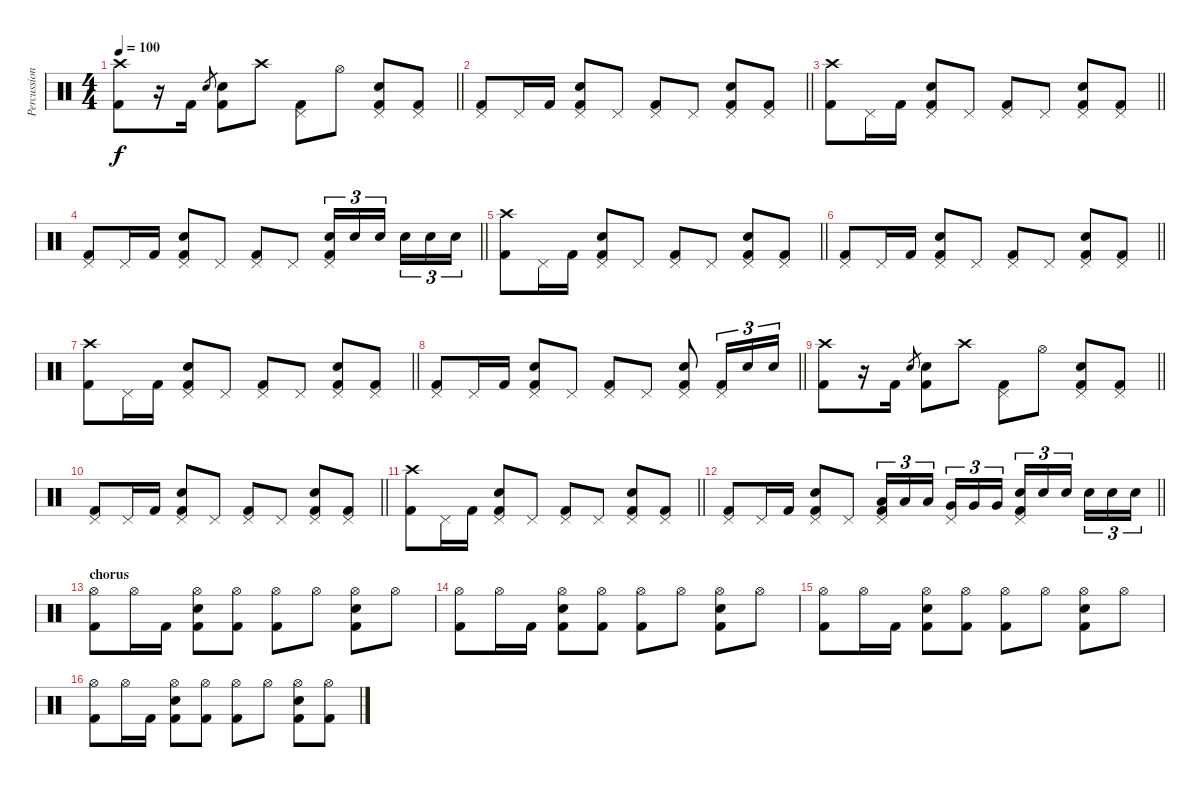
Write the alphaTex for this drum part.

\track ("Percussion" "Percussion") {instrument percussion}
\staff {score}
\articulation defaults
\ts (4 4)
\tempo 100
\clef neutral
\barLineRight lightlight
\ks c
("Crash high (hit)" "Kick (hit) 2").8{dy f} r.16 "Kick (hit) 2".16 "Electric Snare (hit)".8{gr} ("Electric Snare (hit)" "Kick (hit) 2").8 "Crash high (hit)".8 ("Pedal Hi-Hat (hit)" "Kick (hit) 2").8 "Hi-Hat (open)".8 ("Pedal Hi-Hat (hit)" "Electric Snare (hit)" "Kick (hit) 2").8 ("Pedal Hi-Hat (hit)" "Kick (hit) 2").8 |
\barLineRight lightlight
("Pedal Hi-Hat (hit)" "Kick (hit) 2").8 "Pedal Hi-Hat (hit)".16 "Kick (hit) 2".16 ("Pedal Hi-Hat (hit)" "Electric Snare (hit)" "Kick (hit) 2").8 "Pedal Hi-Hat (hit)".8 ("Pedal Hi-Hat (hit)" "Kick (hit) 2").8 "Pedal Hi-Hat (hit)".8 ("Pedal Hi-Hat (hit)" "Electric Snare (hit)" "Kick (hit) 2").8 ("Pedal Hi-Hat (hit)" "Kick (hit) 2").8 |
\barLineRight lightlight
("Crash high (hit)" "Kick (hit) 2").8 "Pedal Hi-Hat (hit)".16 "Kick (hit) 2".16 ("Pedal Hi-Hat (hit)" "Electric Snare (hit)" "Kick (hit) 2").8 "Pedal Hi-Hat (hit)".8 ("Pedal Hi-Hat (hit)" "Kick (hit) 2").8 "Pedal Hi-Hat (hit)".8 ("Pedal Hi-Hat (hit)" "Electric Snare (hit)" "Kick (hit) 2").8 ("Pedal Hi-Hat (hit)" "Kick (hit) 2").8 |
\barLineRight lightlight
("Pedal Hi-Hat (hit)" "Kick (hit) 2").8 "Pedal Hi-Hat (hit)".16 "Kick (hit) 2".16 ("Pedal Hi-Hat (hit)" "Electric Snare (hit)" "Kick (hit) 2").8 "Pedal Hi-Hat (hit)".8 ("Pedal Hi-Hat (hit)" "Kick (hit) 2").8 "Pedal Hi-Hat (hit)".8 ("Pedal Hi-Hat (hit)" "Electric Snare (hit)" "Kick (hit) 2").16{tu (3 2)} "Electric Snare (hit)".16{tu (3 2)} "Electric Snare (hit)".16{tu (3 2) beam splitsecondary} "Electric Snare (hit)".16{tu (3 2)} "Electric Snare (hit)".16{tu (3 2)} "Electric Snare (hit)".16{tu (3 2)} |
\barLineRight lightlight
("Crash high (hit)" "Kick (hit) 2").8 "Pedal Hi-Hat (hit)".16 "Kick (hit) 2".16 ("Pedal Hi-Hat (hit)" "Electric Snare (hit)" "Kick (hit) 2").8 "Pedal Hi-Hat (hit)".8 ("Pedal Hi-Hat (hit)" "Kick (hit) 2").8 "Pedal Hi-Hat (hit)".8 ("Pedal Hi-Hat (hit)" "Electric Snare (hit)" "Kick (hit) 2").8 ("Pedal Hi-Hat (hit)" "Kick (hit) 2").8 |
\barLineRight lightlight
("Pedal Hi-Hat (hit)" "Kick (hit) 2").8 "Pedal Hi-Hat (hit)".16 "Kick (hit) 2".16 ("Pedal Hi-Hat (hit)" "Electric Snare (hit)" "Kick (hit) 2").8 "Pedal Hi-Hat (hit)".8 ("Pedal Hi-Hat (hit)" "Kick (hit) 2").8 "Pedal Hi-Hat (hit)".8 ("Pedal Hi-Hat (hit)" "Electric Snare (hit)" "Kick (hit) 2").8 ("Pedal Hi-Hat (hit)" "Kick (hit) 2").8 |
\barLineRight lightlight
("Crash high (hit)" "Kick (hit) 2").8 "Pedal Hi-Hat (hit)".16 "Kick (hit) 2".16 ("Pedal Hi-Hat (hit)" "Electric Snare (hit)" "Kick (hit) 2").8 "Pedal Hi-Hat (hit)".8 ("Pedal Hi-Hat (hit)" "Kick (hit) 2").8 "Pedal Hi-Hat (hit)".8 ("Pedal Hi-Hat (hit)" "Electric Snare (hit)" "Kick (hit) 2").8 ("Pedal Hi-Hat (hit)" "Kick (hit) 2").8 |
\barLineRight lightlight
("Pedal Hi-Hat (hit)" "Kick (hit) 2").8 "Pedal Hi-Hat (hit)".16 "Kick (hit) 2".16 ("Pedal Hi-Hat (hit)" "Electric Snare (hit)" "Kick (hit) 2").8 "Pedal Hi-Hat (hit)".8 ("Pedal Hi-Hat (hit)" "Kick (hit) 2").8 "Pedal Hi-Hat (hit)".8 ("Pedal Hi-Hat (hit)" "Electric Snare (hit)" "Kick (hit) 2").8 ("Pedal Hi-Hat (hit)" "Kick (hit) 2").16{tu (3 2)} "Electric Snare (hit)".16{tu (3 2)} "Electric Snare (hit)".16{tu (3 2)} |
\barLineRight lightlight
("Crash high (hit)" "Kick (hit) 2").8 r.16 "Kick (hit) 2".16 "Electric Snare (hit)".8{gr} ("Electric Snare (hit)" "Kick (hit) 2").8 "Crash high (hit)".8 ("Pedal Hi-Hat (hit)" "Kick (hit) 2").8 "Hi-Hat (open)".8 ("Pedal Hi-Hat (hit)" "Electric Snare (hit)" "Kick (hit) 2").8 ("Pedal Hi-Hat (hit)" "Kick (hit) 2").8 |
\barLineRight lightlight
("Pedal Hi-Hat (hit)" "Kick (hit) 2").8 "Pedal Hi-Hat (hit)".16 "Kick (hit) 2".16 ("Pedal Hi-Hat (hit)" "Electric Snare (hit)" "Kick (hit) 2").8 "Pedal Hi-Hat (hit)".8 ("Pedal Hi-Hat (hit)" "Kick (hit) 2").8 "Pedal Hi-Hat (hit)".8 ("Pedal Hi-Hat (hit)" "Electric Snare (hit)" "Kick (hit) 2").8 ("Pedal Hi-Hat (hit)" "Kick (hit) 2").8 |
\barLineRight lightlight
("Crash high (hit)" "Kick (hit) 2").8 "Pedal Hi-Hat (hit)".16 "Kick (hit) 2".16 ("Pedal Hi-Hat (hit)" "Electric Snare (hit)" "Kick (hit) 2").8 "Pedal Hi-Hat (hit)".8 ("Pedal Hi-Hat (hit)" "Kick (hit) 2").8 "Pedal Hi-Hat (hit)".8 ("Pedal Hi-Hat (hit)" "Electric Snare (hit)" "Kick (hit) 2").8 ("Pedal Hi-Hat (hit)" "Kick (hit) 2").8 |
\barLineRight lightlight
("Pedal Hi-Hat (hit)" "Kick (hit) 2").8 "Pedal Hi-Hat (hit)".16 "Kick (hit) 2".16 ("Pedal Hi-Hat (hit)" "Electric Snare (hit)" "Kick (hit) 2").8 "Pedal Hi-Hat (hit)".8 ("Pedal Hi-Hat (hit)" "Low Tom (hit)" "Kick (hit) 2").16{tu (3 2)} "Low Tom (hit)".16{tu (3 2)} "Low Tom (hit)".16{tu (3 2) beam splitsecondary} ("Pedal Hi-Hat (hit)" "Very Low Tom (hit)").16{tu (3 2)} "Very Low Tom (hit)".16{tu (3 2)} "Very Low Tom (hit)".16{tu (3 2)} ("Pedal Hi-Hat (hit)" "Electric Snare (hit)" "Kick (hit) 2").16{tu (3 2)} "Electric Snare (hit)".16{tu (3 2)} "Electric Snare (hit)".16{tu (3 2) beam splitsecondary} "Electric Snare (hit)".16{tu (3 2)} "Electric Snare (hit)".16{tu (3 2)} "Electric Snare (hit)".16{tu (3 2)} |
\section ("" "chorus")
("Hi-Hat (open)" "Kick (hit) 2").8 "Hi-Hat (open)".16 "Kick (hit) 2".16 ("Hi-Hat (open)" "Electric Snare (hit)" "Kick (hit) 2").8 ("Hi-Hat (open)" "Kick (hit) 2").8 ("Hi-Hat (open)" "Kick (hit) 2").8 "Hi-Hat (open)".8 ("Hi-Hat (open)" "Electric Snare (hit)" "Kick (hit) 2").8 "Hi-Hat (open)".8 |
("Hi-Hat (open)" "Kick (hit) 2").8 "Hi-Hat (open)".16 "Kick (hit) 2".16 ("Hi-Hat (open)" "Electric Snare (hit)" "Kick (hit) 2").8 ("Hi-Hat (open)" "Kick (hit) 2").8 ("Hi-Hat (open)" "Kick (hit) 2").8 "Hi-Hat (open)".8 ("Hi-Hat (open)" "Electric Snare (hit)" "Kick (hit) 2").8 "Hi-Hat (open)".8 |
("Hi-Hat (open)" "Kick (hit) 2").8 "Hi-Hat (open)".16 "Kick (hit) 2".16 ("Hi-Hat (open)" "Electric Snare (hit)" "Kick (hit) 2").8 ("Hi-Hat (open)" "Kick (hit) 2").8 ("Hi-Hat (open)" "Kick (hit) 2").8 "Hi-Hat (open)".8 ("Hi-Hat (open)" "Electric Snare (hit)" "Kick (hit) 2").8 "Hi-Hat (open)".8 |
("Hi-Hat (open)" "Kick (hit) 2").8 "Hi-Hat (open)".16 "Kick (hit) 2".16 ("Hi-Hat (open)" "Electric Snare (hit)" "Kick (hit) 2").8 ("Hi-Hat (open)" "Kick (hit) 2").8 ("Hi-Hat (open)" "Kick (hit) 2").8 "Hi-Hat (open)".8 ("Hi-Hat (open)" "Electric Snare (hit)" "Kick (hit) 2").8 ("Hi-Hat (open)" "Kick (hit) 2").8
